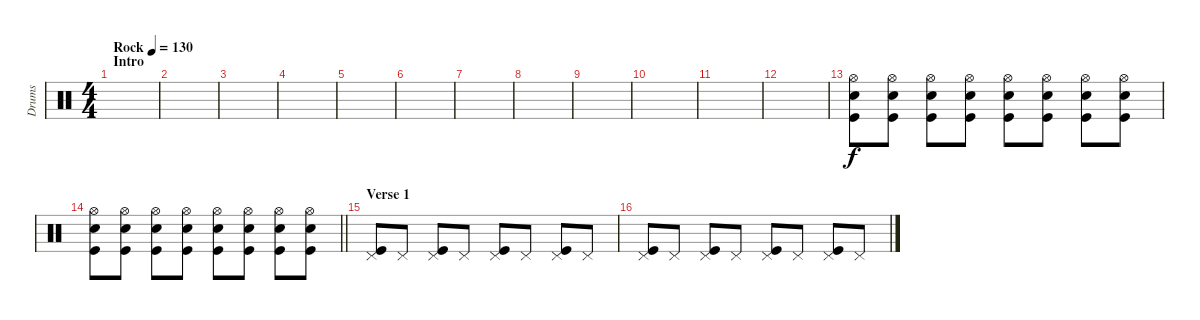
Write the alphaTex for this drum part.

\track ("Drums" "Drums") {instrument percussion}
\staff {score}
\articulation defaults
\ts (4 4)
\section ("" "Intro")
\tempo (130 "Rock")
\clef neutral
\ks c
|
|
|
|
|
|
|
|
|
|
|
|
("Snare (hit) 2" "Kick (hit)" "Hi-Hat (open)").8 ("Snare (hit) 2" "Kick (hit)" "Hi-Hat (open)").8 ("Snare (hit) 2" "Kick (hit)" "Hi-Hat (open)").8 ("Snare (hit) 2" "Kick (hit)" "Hi-Hat (open)").8 ("Snare (hit) 2" "Kick (hit)" "Hi-Hat (open)").8 ("Snare (hit) 2" "Kick (hit)" "Hi-Hat (open)").8 ("Snare (hit) 2" "Kick (hit)" "Hi-Hat (open)").8 ("Snare (hit) 2" "Kick (hit)" "Hi-Hat (open)").8 |
\barLineRight lightlight
("Snare (hit) 2" "Kick (hit)" "Hi-Hat (open)").8 ("Snare (hit) 2" "Kick (hit)" "Hi-Hat (open)").8 ("Snare (hit) 2" "Kick (hit)" "Hi-Hat (open)").8 ("Snare (hit) 2" "Kick (hit)" "Hi-Hat (open)").8 ("Snare (hit) 2" "Kick (hit)" "Hi-Hat (open)").8 ("Snare (hit) 2" "Kick (hit)" "Hi-Hat (open)").8 ("Snare (hit) 2" "Kick (hit)" "Hi-Hat (open)").8 ("Snare (hit) 2" "Kick (hit)" "Hi-Hat (open)").8 |
\section ("" "Verse 1")
("Kick (hit)" "Pedal Hi-Hat (hit)").8 "Pedal Hi-Hat (hit)".8 ("Kick (hit)" "Pedal Hi-Hat (hit)").8 "Pedal Hi-Hat (hit)".8 ("Kick (hit)" "Pedal Hi-Hat (hit)").8 "Pedal Hi-Hat (hit)".8 ("Kick (hit)" "Pedal Hi-Hat (hit)").8 "Pedal Hi-Hat (hit)".8 |
("Kick (hit)" "Pedal Hi-Hat (hit)").8 "Pedal Hi-Hat (hit)".8 ("Kick (hit)" "Pedal Hi-Hat (hit)").8 "Pedal Hi-Hat (hit)".8 ("Kick (hit)" "Pedal Hi-Hat (hit)").8 "Pedal Hi-Hat (hit)".8 ("Kick (hit)" "Pedal Hi-Hat (hit)").8 "Pedal Hi-Hat (hit)".8
